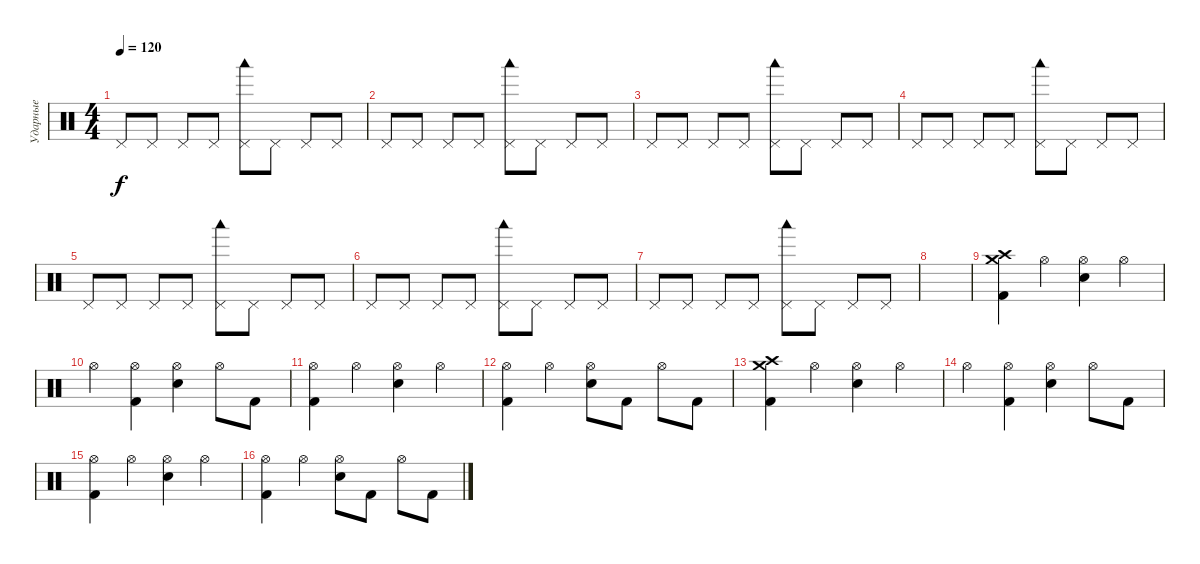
\track ("Ударные" "Ударные") {instrument percussion}
\staff {score}
\articulation defaults
\ts (4 4)
\tempo 120
\clef neutral
\ks c "Pedal Hi-Hat (hit)".8{dy f} "Pedal Hi-Hat (hit)".8 "Pedal Hi-Hat (hit)".8 "Pedal Hi-Hat (hit)".8
("Woodblock low (hit)" "Pedal Hi-Hat (hit)").8 "Pedal Hi-Hat (hit)".8 "Pedal Hi-Hat (hit)".8 "Pedal Hi-Hat (hit)".8 |
"Pedal Hi-Hat (hit)".8 "Pedal Hi-Hat (hit)".8 "Pedal Hi-Hat (hit)".8 "Pedal Hi-Hat (hit)".8 ("Woodblock low (hit)" "Pedal Hi-Hat (hit)").8 "Pedal Hi-Hat (hit)".8 "Pedal Hi-Hat (hit)".8 "Pedal Hi-Hat (hit)".8 |
"Pedal Hi-Hat (hit)".8 "Pedal Hi-Hat (hit)".8 "Pedal Hi-Hat (hit)".8 "Pedal Hi-Hat (hit)".8 ("Woodblock low (hit)" "Pedal Hi-Hat (hit)").8 "Pedal Hi-Hat (hit)".8 "Pedal Hi-Hat (hit)".8 "Pedal Hi-Hat (hit)".8 |
"Pedal Hi-Hat (hit)".8 "Pedal Hi-Hat (hit)".8 "Pedal Hi-Hat (hit)".8 "Pedal Hi-Hat (hit)".8 ("Woodblock low (hit)" "Pedal Hi-Hat (hit)").8 "Pedal Hi-Hat (hit)".8 "Pedal Hi-Hat (hit)".8 "Pedal Hi-Hat (hit)".8 |
"Pedal Hi-Hat (hit)".8 "Pedal Hi-Hat (hit)".8 "Pedal Hi-Hat (hit)".8 "Pedal Hi-Hat (hit)".8 ("Woodblock low (hit)" "Pedal Hi-Hat (hit)").8 "Pedal Hi-Hat (hit)".8 "Pedal Hi-Hat (hit)".8 "Pedal Hi-Hat (hit)".8 |
"Pedal Hi-Hat (hit)".8 "Pedal Hi-Hat (hit)".8 "Pedal Hi-Hat (hit)".8 "Pedal Hi-Hat (hit)".8 ("Woodblock low (hit)" "Pedal Hi-Hat (hit)").8 "Pedal Hi-Hat (hit)".8 "Pedal Hi-Hat (hit)".8 "Pedal Hi-Hat (hit)".8 |
"Pedal Hi-Hat (hit)".8 "Pedal Hi-Hat (hit)".8 "Pedal Hi-Hat (hit)".8 "Pedal Hi-Hat (hit)".8 ("Woodblock low (hit)" "Pedal Hi-Hat (hit)").8 "Pedal Hi-Hat (hit)".8 "Pedal Hi-Hat (hit)".8 "Pedal Hi-Hat (hit)".8 |
|
("Kick (hit) 2" "Crash high (hit)" "Crash medium (hit)").4 "Hi-Hat (open)".4 ("Electric Snare (hit)" "Hi-Hat (open)").4 "Hi-Hat (open)".4 |
"Hi-Hat (open)".4 ("Kick (hit) 2" "Hi-Hat (open)").4 ("Electric Snare (hit)" "Hi-Hat (open)").4 "Hi-Hat (open)".8 "Kick (hit) 2".8 |
("Kick (hit) 2" "Hi-Hat (open)").4 "Hi-Hat (open)".4 ("Electric Snare (hit)" "Hi-Hat (open)").4 "Hi-Hat (open)".4 |
("Kick (hit) 2" "Hi-Hat (open)").4 "Hi-Hat (open)".4 ("Electric Snare (hit)" "Hi-Hat (open)").8 "Kick (hit) 2".8 "Hi-Hat (open)".8 "Kick (hit) 2".8 |
("Kick (hit) 2" "Crash high (hit)" "Crash medium (hit)").4 "Hi-Hat (open)".4 ("Electric Snare (hit)" "Hi-Hat (open)").4 "Hi-Hat (open)".4 |
"Hi-Hat (open)".4 ("Kick (hit) 2" "Hi-Hat (open)").4 ("Electric Snare (hit)" "Hi-Hat (open)").4 "Hi-Hat (open)".8 "Kick (hit) 2".8 |
("Kick (hit) 2" "Hi-Hat (open)").4 "Hi-Hat (open)".4 ("Electric Snare (hit)" "Hi-Hat (open)").4 "Hi-Hat (open)".4 |
("Kick (hit) 2" "Hi-Hat (open)").4 "Hi-Hat (open)".4 ("Electric Snare (hit)" "Hi-Hat (open)").8 "Kick (hit) 2".8 "Hi-Hat (open)".8 "Kick (hit) 2".8
